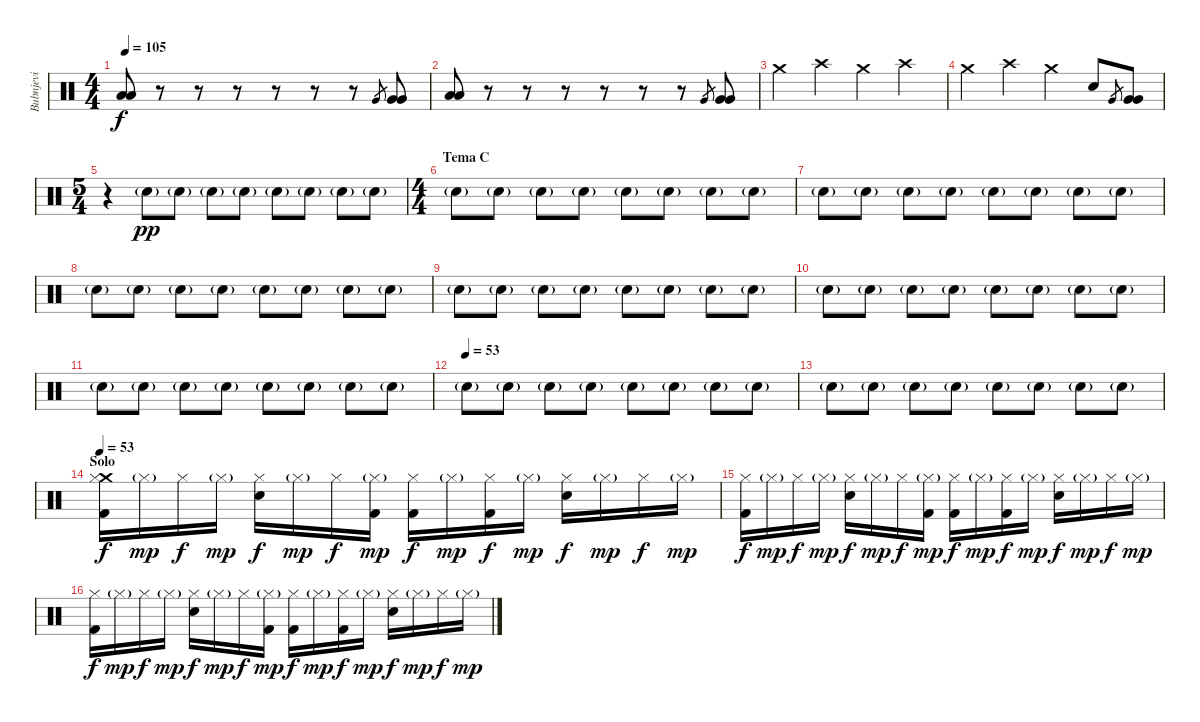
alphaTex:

\track ("Bubnjevi" "Bubnjevi") {instrument percussion}
\staff {score}
\articulation defaults
\ts (4 4)
\tempo 105
\clef neutral
\ks c
("Low Tom (hit)" "Low Tom (hit)").8{dy f} r.8 r.8 r.8 r.8 r.8 r.8 "Very Low Tom (hit)".8{gr} ("Very Low Tom (hit)" "Very Low Tom (hit)").8 |
("Low Tom (hit)" "Low Tom (hit)").8 r.8 r.8 r.8 r.8 r.8 r.8 "Very Low Tom (hit)".8{gr} ("Very Low Tom (hit)" "Very Low Tom (hit)").8 |
"Crash medium (hit)".4 "Crash high (hit)".4 "Crash medium (hit)".4 "Crash high (hit)".4 |
"Crash medium (hit)".4 "Crash high (hit)".4 "Crash medium (hit)".4 "Electric Snare (hit)".8 "Very Low Tom (hit)".8{gr} ("Very Low Tom (hit)" "Very Low Tom (hit)").8 |
\ts (5 4)
r.4 "Electric Snare (hit)"{g}.8{dy pp} "Electric Snare (hit)"{g}.8 "Electric Snare (hit)"{g}.8 "Electric Snare (hit)"{g}.8 "Electric Snare (hit)"{g}.8 "Electric Snare (hit)"{g}.8 "Electric Snare (hit)"{g}.8 "Electric Snare (hit)"{g}.8 |
\ts (4 4)
\section ("" "Tema C")
"Electric Snare (hit)"{g}.8 "Electric Snare (hit)"{g}.8 "Electric Snare (hit)"{g}.8 "Electric Snare (hit)"{g}.8 "Electric Snare (hit)"{g}.8 "Electric Snare (hit)"{g}.8 "Electric Snare (hit)"{g}.8 "Electric Snare (hit)"{g}.8 |
"Electric Snare (hit)"{g}.8 "Electric Snare (hit)"{g}.8 "Electric Snare (hit)"{g}.8 "Electric Snare (hit)"{g}.8 "Electric Snare (hit)"{g}.8 "Electric Snare (hit)"{g}.8 "Electric Snare (hit)"{g}.8 "Electric Snare (hit)"{g}.8 |
"Electric Snare (hit)"{g}.8 "Electric Snare (hit)"{g}.8 "Electric Snare (hit)"{g}.8 "Electric Snare (hit)"{g}.8 "Electric Snare (hit)"{g}.8 "Electric Snare (hit)"{g}.8 "Electric Snare (hit)"{g}.8 "Electric Snare (hit)"{g}.8 |
"Electric Snare (hit)"{g}.8 "Electric Snare (hit)"{g}.8 "Electric Snare (hit)"{g}.8 "Electric Snare (hit)"{g}.8 "Electric Snare (hit)"{g}.8 "Electric Snare (hit)"{g}.8 "Electric Snare (hit)"{g}.8 "Electric Snare (hit)"{g}.8 |
"Electric Snare (hit)"{g}.8 "Electric Snare (hit)"{g}.8 "Electric Snare (hit)"{g}.8 "Electric Snare (hit)"{g}.8 "Electric Snare (hit)"{g}.8 "Electric Snare (hit)"{g}.8 "Electric Snare (hit)"{g}.8 "Electric Snare (hit)"{g}.8 |
"Electric Snare (hit)"{g}.8 "Electric Snare (hit)"{g}.8 "Electric Snare (hit)"{g}.8 "Electric Snare (hit)"{g}.8 "Electric Snare (hit)"{g}.8 "Electric Snare (hit)"{g}.8 "Electric Snare (hit)"{g}.8 "Electric Snare (hit)"{g}.8 |
\tempo (53)
"Electric Snare (hit)"{g}.8 "Electric Snare (hit)"{g}.8 "Electric Snare (hit)"{g}.8 "Electric Snare (hit)"{g}.8 "Electric Snare (hit)"{g}.8 "Electric Snare (hit)"{g}.8 "Electric Snare (hit)"{g}.8 "Electric Snare (hit)"{g}.8 |
"Electric Snare (hit)"{g}.8 "Electric Snare (hit)"{g}.8 "Electric Snare (hit)"{g}.8 "Electric Snare (hit)"{g}.8 "Electric Snare (hit)"{g}.8 "Electric Snare (hit)"{g}.8 "Electric Snare (hit)"{g}.8 "Electric Snare (hit)"{g}.8 |
\section ("" "Solo")
\tempo 53
("Crash medium (hit)" "Hi-Hat (closed)" "Kick (hit) 2").16{dy f} "Hi-Hat (closed)"{g}.16{dy mp} "Hi-Hat (closed)".16{dy f} "Hi-Hat (closed)"{g}.16{dy mp} ("Electric Snare (hit)" "Hi-Hat (closed)").16{dy f} "Hi-Hat (closed)"{g}.16{dy mp} "Hi-Hat (closed)".16{dy f} ("Hi-Hat (closed)"{g} "Kick (hit) 2").16{dy mp} ("Hi-Hat (closed)" "Kick (hit) 2").16{dy f} "Hi-Hat (closed)"{g}.16{dy mp} ("Hi-Hat (closed)" "Kick (hit) 2").16{dy f} "Hi-Hat (closed)"{g}.16{dy mp} ("Electric Snare (hit)" "Hi-Hat (closed)").16{dy f} "Hi-Hat (closed)"{g}.16{dy mp} "Hi-Hat (closed)".16{dy f} "Hi-Hat (closed)"{g}.16{dy mp} |
("Hi-Hat (closed)" "Kick (hit) 2").16{dy f} "Hi-Hat (closed)"{g}.16{dy mp} "Hi-Hat (closed)".16{dy f} "Hi-Hat (closed)"{g}.16{dy mp} ("Electric Snare (hit)" "Hi-Hat (closed)").16{dy f} "Hi-Hat (closed)"{g}.16{dy mp} "Hi-Hat (closed)".16{dy f} ("Hi-Hat (closed)"{g} "Kick (hit) 2").16{dy mp} ("Hi-Hat (closed)" "Kick (hit) 2").16{dy f} "Hi-Hat (closed)"{g}.16{dy mp} ("Hi-Hat (closed)" "Kick (hit) 2").16{dy f} "Hi-Hat (closed)"{g}.16{dy mp} ("Electric Snare (hit)" "Hi-Hat (closed)").16{dy f} "Hi-Hat (closed)"{g}.16{dy mp} "Hi-Hat (closed)".16{dy f} "Hi-Hat (closed)"{g}.16{dy mp} |
("Hi-Hat (closed)" "Kick (hit) 2").16{dy f} "Hi-Hat (closed)"{g}.16{dy mp} "Hi-Hat (closed)".16{dy f} "Hi-Hat (closed)"{g}.16{dy mp} ("Electric Snare (hit)" "Hi-Hat (closed)").16{dy f} "Hi-Hat (closed)"{g}.16{dy mp} "Hi-Hat (closed)".16{dy f} ("Hi-Hat (closed)"{g} "Kick (hit) 2").16{dy mp} ("Hi-Hat (closed)" "Kick (hit) 2").16{dy f} "Hi-Hat (closed)"{g}.16{dy mp} ("Hi-Hat (closed)" "Kick (hit) 2").16{dy f} "Hi-Hat (closed)"{g}.16{dy mp} ("Electric Snare (hit)" "Hi-Hat (closed)").16{dy f} "Hi-Hat (closed)"{g}.16{dy mp} "Hi-Hat (closed)".16{dy f} "Hi-Hat (closed)"{g}.16{dy mp}
